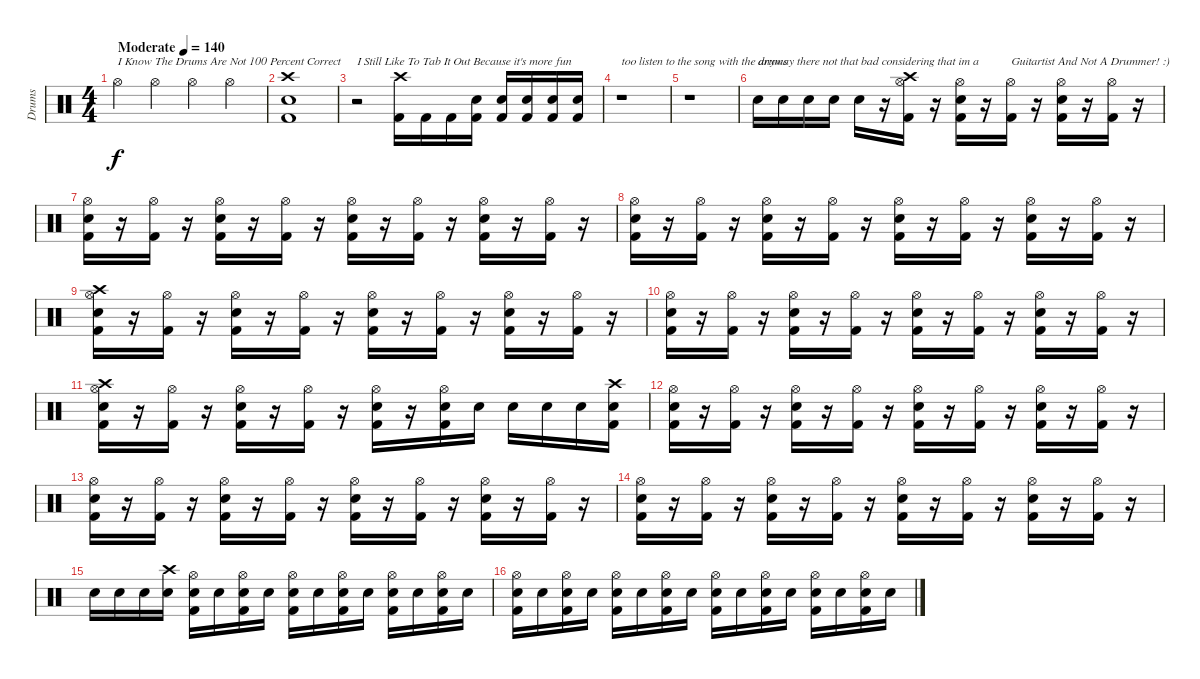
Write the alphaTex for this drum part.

\track ("Drums" "Drums") {instrument percussion}
\staff {score}
\articulation defaults
\ts (4 4)
\tempo (140 "Moderate")
\clef neutral
\ks c "Hi-Hat (open)".4{txt "I Know The Drums Are Not 100 Percent Correct" dy f} "Hi-Hat (open)".4 "Hi-Hat (open)".4 "Hi-Hat (open)".4
|
("Crash high (hit)" "Electric Snare (hit)" "Kick (hit) 2").1 |
r.2{txt "I Still Like To Tab It Out Because it's more fun"} ("Crash high (hit)" "Kick (hit) 2").16 "Kick (hit) 2".16 "Kick (hit) 2".16 ("Electric Snare (hit)" "Kick (hit) 2").16 ("Electric Snare (hit)" "Kick (hit) 2").16 ("Electric Snare (hit)" "Kick (hit) 2").16 ("Electric Snare (hit)" "Kick (hit) 2").16 ("Electric Snare (hit)" "Kick (hit) 2").16 |
r.1{txt "too listen to the song with the drums"} |
r.1 |
"Electric Snare (hit)".16{txt "anyway there not that bad considering that im a"} "Electric Snare (hit)".16 "Electric Snare (hit)".16 "Electric Snare (hit)".16 "Electric Snare (hit)".16 r.16 ("Hi-Hat (open)" "Crash high (hit)" "Kick (hit) 2").16 r.16 ("Hi-Hat (open)" "Electric Snare (hit)" "Kick (hit) 2").16 r.16 ("Hi-Hat (open)" "Kick (hit) 2").16{txt "Guitartist And Not A Drummer! :)"} r.16 ("Hi-Hat (open)" "Electric Snare (hit)" "Kick (hit) 2").16 r.16 ("Hi-Hat (open)" "Kick (hit) 2").16 r.16 |
("Hi-Hat (open)" "Electric Snare (hit)" "Kick (hit) 2").16 r.16 ("Hi-Hat (open)" "Kick (hit) 2").16 r.16 ("Hi-Hat (open)" "Electric Snare (hit)" "Kick (hit) 2").16 r.16 ("Hi-Hat (open)" "Kick (hit) 2").16 r.16 ("Hi-Hat (open)" "Electric Snare (hit)" "Kick (hit) 2").16 r.16 ("Hi-Hat (open)" "Kick (hit) 2").16 r.16 ("Hi-Hat (open)" "Electric Snare (hit)" "Kick (hit) 2").16 r.16 ("Hi-Hat (open)" "Kick (hit) 2").16 r.16 |
("Hi-Hat (open)" "Electric Snare (hit)" "Kick (hit) 2").16 r.16 ("Hi-Hat (open)" "Kick (hit) 2").16 r.16 ("Hi-Hat (open)" "Electric Snare (hit)" "Kick (hit) 2").16 r.16 ("Hi-Hat (open)" "Kick (hit) 2").16 r.16 ("Hi-Hat (open)" "Electric Snare (hit)" "Kick (hit) 2").16 r.16 ("Hi-Hat (open)" "Kick (hit) 2").16 r.16 ("Hi-Hat (open)" "Electric Snare (hit)" "Kick (hit) 2").16 r.16 ("Hi-Hat (open)" "Kick (hit) 2").16 r.16 |
("Hi-Hat (open)" "Electric Snare (hit)" "Crash high (hit)" "Kick (hit) 2").16 r.16 ("Hi-Hat (open)" "Kick (hit) 2").16 r.16 ("Hi-Hat (open)" "Electric Snare (hit)" "Kick (hit) 2").16 r.16 ("Hi-Hat (open)" "Kick (hit) 2").16 r.16 ("Hi-Hat (open)" "Electric Snare (hit)" "Kick (hit) 2").16 r.16 ("Hi-Hat (open)" "Kick (hit) 2").16 r.16 ("Hi-Hat (open)" "Electric Snare (hit)" "Kick (hit) 2").16 r.16 ("Hi-Hat (open)" "Kick (hit) 2").16 r.16 |
("Hi-Hat (open)" "Electric Snare (hit)" "Kick (hit) 2").16 r.16 ("Hi-Hat (open)" "Kick (hit) 2").16 r.16 ("Hi-Hat (open)" "Electric Snare (hit)" "Kick (hit) 2").16 r.16 ("Hi-Hat (open)" "Kick (hit) 2").16 r.16 ("Hi-Hat (open)" "Electric Snare (hit)" "Kick (hit) 2").16 r.16 ("Hi-Hat (open)" "Kick (hit) 2").16 r.16 ("Hi-Hat (open)" "Electric Snare (hit)" "Kick (hit) 2").16 r.16 ("Hi-Hat (open)" "Kick (hit) 2").16 r.16 |
("Hi-Hat (open)" "Electric Snare (hit)" "Crash high (hit)" "Kick (hit) 2").16 r.16 ("Hi-Hat (open)" "Kick (hit) 2").16 r.16 ("Hi-Hat (open)" "Electric Snare (hit)" "Kick (hit) 2").16 r.16 ("Hi-Hat (open)" "Kick (hit) 2").16 r.16 ("Hi-Hat (open)" "Electric Snare (hit)" "Kick (hit) 2").16 r.16 ("Hi-Hat (open)" "Electric Snare (hit)" "Kick (hit) 2").16 "Electric Snare (hit)".16 "Electric Snare (hit)".16 "Electric Snare (hit)".16 "Electric Snare (hit)".16 ("Crash high (hit)" "Electric Snare (hit)" "Kick (hit) 2").16 |
("Hi-Hat (open)" "Electric Snare (hit)" "Kick (hit) 2").16 r.16 ("Hi-Hat (open)" "Kick (hit) 2").16 r.16 ("Hi-Hat (open)" "Electric Snare (hit)" "Kick (hit) 2").16 r.16 ("Hi-Hat (open)" "Kick (hit) 2").16 r.16 ("Hi-Hat (open)" "Electric Snare (hit)" "Kick (hit) 2").16 r.16 ("Hi-Hat (open)" "Kick (hit) 2").16 r.16 ("Hi-Hat (open)" "Electric Snare (hit)" "Kick (hit) 2").16 r.16 ("Hi-Hat (open)" "Kick (hit) 2").16 r.16 |
("Hi-Hat (open)" "Electric Snare (hit)" "Kick (hit) 2").16 r.16 ("Hi-Hat (open)" "Kick (hit) 2").16 r.16 ("Hi-Hat (open)" "Electric Snare (hit)" "Kick (hit) 2").16 r.16 ("Hi-Hat (open)" "Kick (hit) 2").16 r.16 ("Hi-Hat (open)" "Electric Snare (hit)" "Kick (hit) 2").16 r.16 ("Hi-Hat (open)" "Kick (hit) 2").16 r.16 ("Hi-Hat (open)" "Electric Snare (hit)" "Kick (hit) 2").16 r.16 ("Hi-Hat (open)" "Kick (hit) 2").16 r.16 |
("Hi-Hat (open)" "Electric Snare (hit)" "Kick (hit) 2").16 r.16 ("Hi-Hat (open)" "Kick (hit) 2").16 r.16 ("Hi-Hat (open)" "Electric Snare (hit)" "Kick (hit) 2").16 r.16 ("Hi-Hat (open)" "Kick (hit) 2").16 r.16 ("Hi-Hat (open)" "Electric Snare (hit)" "Kick (hit) 2").16 r.16 ("Hi-Hat (open)" "Kick (hit) 2").16 r.16 ("Hi-Hat (open)" "Electric Snare (hit)" "Kick (hit) 2").16 r.16 ("Hi-Hat (open)" "Kick (hit) 2").16 r.16 |
"Electric Snare (hit)".16 "Electric Snare (hit)".16 "Electric Snare (hit)".16 ("Crash high (hit)" "Electric Snare (hit)").16 ("Hi-Hat (open)" "Electric Snare (hit)" "Kick (hit) 2").16 "Electric Snare (hit)".16 ("Hi-Hat (open)" "Electric Snare (hit)" "Kick (hit) 2").16 "Electric Snare (hit)".16 ("Hi-Hat (open)" "Electric Snare (hit)" "Kick (hit) 2").16 "Electric Snare (hit)".16 ("Hi-Hat (open)" "Electric Snare (hit)" "Kick (hit) 2").16 "Electric Snare (hit)".16 ("Hi-Hat (open)" "Electric Snare (hit)" "Kick (hit) 2").16 "Electric Snare (hit)".16 ("Hi-Hat (open)" "Electric Snare (hit)" "Kick (hit) 2").16 "Electric Snare (hit)".16 |
("Hi-Hat (open)" "Electric Snare (hit)" "Kick (hit) 2").16 "Electric Snare (hit)".16 ("Hi-Hat (open)" "Electric Snare (hit)" "Kick (hit) 2").16 "Electric Snare (hit)".16 ("Hi-Hat (open)" "Electric Snare (hit)" "Kick (hit) 2").16 "Electric Snare (hit)".16 ("Hi-Hat (open)" "Electric Snare (hit)" "Kick (hit) 2").16 "Electric Snare (hit)".16 ("Hi-Hat (open)" "Electric Snare (hit)" "Kick (hit) 2").16 "Electric Snare (hit)".16 ("Hi-Hat (open)" "Electric Snare (hit)" "Kick (hit) 2").16 "Electric Snare (hit)".16 ("Hi-Hat (open)" "Electric Snare (hit)" "Kick (hit) 2").16 "Electric Snare (hit)".16 ("Hi-Hat (open)" "Electric Snare (hit)" "Kick (hit) 2").16 "Electric Snare (hit)".16
